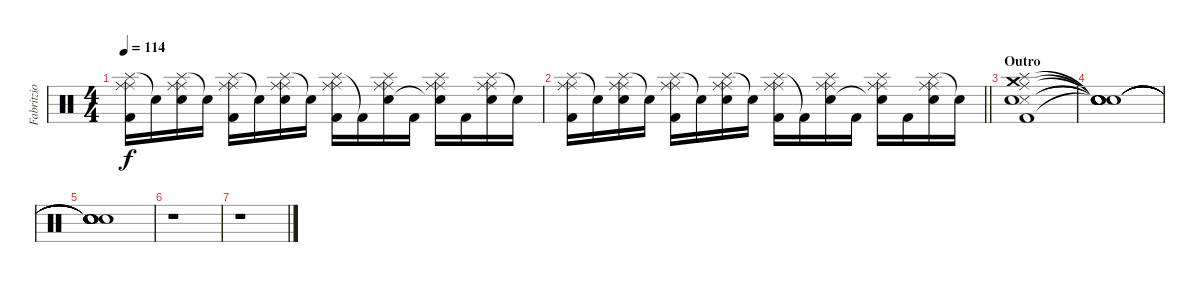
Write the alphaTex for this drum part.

\track ("Fabritzio Moretti" "Fabritzio ") {instrument percussion}
\staff {score}
\articulation defaults
\ts (4 4)
\tempo 114
\clef neutral
\ks c
("Splash (hit)" "Ride (middle)" "Ride (middle)" "Kick (hit) 2").16{dy f} "Snare (hit)"{t}.16 ("Splash (hit)" "Ride (middle)" "Ride (middle)" "Snare (hit) 2").16 "Snare (hit)"{t}.16 ("Splash (hit)" "Ride (middle)" "Ride (middle)" "Kick (hit) 2").16 "Snare (hit)"{t}.16 ("Splash (hit)" "Ride (middle)" "Ride (middle)" "Snare (hit) 2").16 "Snare (hit)"{t}.16 ("Splash (hit)" "Ride (middle)" "Ride (middle)" "Kick (hit) 2").16 "Kick (hit) 2"{t}.16 ("Splash (hit)" "Ride (middle)" "Ride (middle)" "Snare (hit) 2").16 "Kick (hit) 2".16 ("Splash (hit)" "Ride (middle)" "Ride (middle)" "Snare (hit)"{t}).16 "Kick (hit) 2".16 ("Splash (hit)" "Ride (middle)" "Ride (middle)" "Snare (hit) 2").16 "Snare (hit)"{t}.16 |
\barLineRight lightlight
("Splash (hit)" "Ride (middle)" "Ride (middle)" "Kick (hit) 2").16 "Snare (hit)"{t}.16 ("Splash (hit)" "Ride (middle)" "Ride (middle)" "Snare (hit) 2").16 "Snare (hit)"{t}.16 ("Splash (hit)" "Ride (middle)" "Ride (middle)" "Kick (hit) 2").16 "Snare (hit)"{t}.16 ("Splash (hit)" "Ride (middle)" "Ride (middle)" "Snare (hit) 2").16 "Snare (hit)"{t}.16 ("Splash (hit)" "Ride (middle)" "Ride (middle)" "Kick (hit) 2").16 "Kick (hit) 2"{t}.16 ("Splash (hit)" "Ride (middle)" "Ride (middle)" "Snare (hit) 2").16 "Kick (hit) 2".16 ("Splash (hit)" "Ride (middle)" "Ride (middle)" "Snare (hit)"{t}).16 "Kick (hit) 2".16 ("Splash (hit)" "Ride (middle)" "Ride (middle)" "Snare (hit) 2").16 "Snare (hit)"{t}.16 |
\section ("" "Outro")
("Ride (middle)" "Crash medium (hit)" "Splash (hit)" "Snare (side stick) 3" "Snare (hit) 2" "Kick (hit) 2").1 |
("Snare (hit)"{t} "Snare (hit)"{t} "Snare (hit)"{t} "Snare (hit)"{t} "Snare (hit)"{t} "Snare (hit)"{t}).1 |
("Snare (hit)"{t} "Snare (hit)"{t} "Snare (hit)"{t} "Snare (hit)"{t} "Snare (hit)"{t} "Snare (hit)"{t}).1 |
r.1 |
r.1
